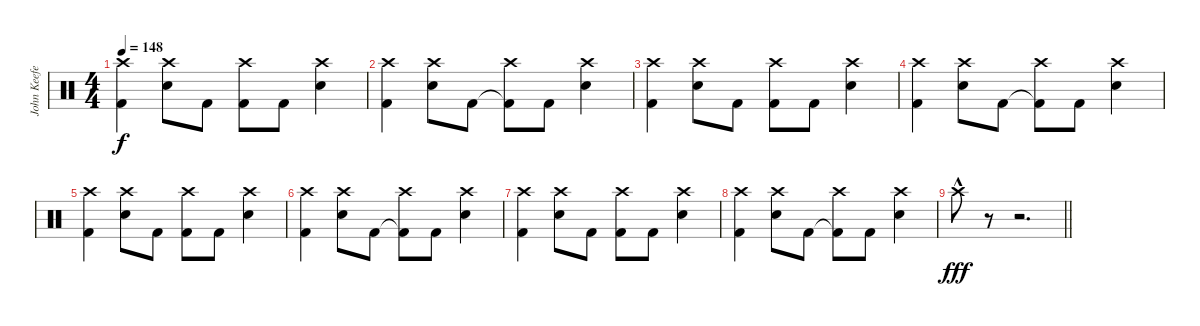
\track ("John Keefe (Percussion)" "John Keefe") {instrument percussion}
\staff {score}
\articulation defaults
\ts (4 4)
\tempo 148
\clef neutral
\ks c
("Crash high (hit)" "Kick (hit) 2").4{dy f} ("Snare (hit) 2" "Crash high (hit)").8 "Kick (hit) 2".8 ("Kick (hit) 2" "Crash high (hit)").8 "Kick (hit) 2".8 ("Snare (hit) 2" "Crash high (hit)").4 |
("Kick (hit) 2" "Crash high (hit)").4 ("Snare (hit) 2" "Crash high (hit)").8 "Kick (hit) 2".8 ("Kick (hit) 2"{t} "Crash high (hit)").8 "Kick (hit) 2".8 ("Snare (hit) 2" "Crash high (hit)").4 |
("Crash high (hit)" "Kick (hit) 2").4 ("Snare (hit) 2" "Crash high (hit)").8 "Kick (hit) 2".8 ("Kick (hit) 2" "Crash high (hit)").8 "Kick (hit) 2".8 ("Snare (hit) 2" "Crash high (hit)").4 |
("Kick (hit) 2" "Crash high (hit)").4 ("Snare (hit) 2" "Crash high (hit)").8 "Kick (hit) 2".8 ("Kick (hit) 2"{t} "Crash high (hit)").8 "Kick (hit) 2".8 ("Snare (hit) 2" "Crash high (hit)").4 |
("Crash high (hit)" "Kick (hit) 2").4 ("Snare (hit) 2" "Crash high (hit)").8 "Kick (hit) 2".8 ("Kick (hit) 2" "Crash high (hit)").8 "Kick (hit) 2".8 ("Snare (hit) 2" "Crash high (hit)").4 |
("Kick (hit) 2" "Crash high (hit)").4 ("Snare (hit) 2" "Crash high (hit)").8 "Kick (hit) 2".8 ("Kick (hit) 2"{t} "Crash high (hit)").8 "Kick (hit) 2".8 ("Snare (hit) 2" "Crash high (hit)").4 |
("Crash high (hit)" "Kick (hit) 2").4 ("Snare (hit) 2" "Crash high (hit)").8 "Kick (hit) 2".8 ("Kick (hit) 2" "Crash high (hit)").8 "Kick (hit) 2".8 ("Snare (hit) 2" "Crash high (hit)").4 |
("Kick (hit) 2" "Crash high (hit)").4 ("Snare (hit) 2" "Crash high (hit)").8 "Kick (hit) 2".8 ("Kick (hit) 2"{t} "Crash high (hit)").8 "Kick (hit) 2".8 ("Snare (hit) 2" "Crash high (hit)").4 |
\barLineRight lightlight "Crash high (hit)"{hac}.8{dy fff}
r.8 r.2{d}
